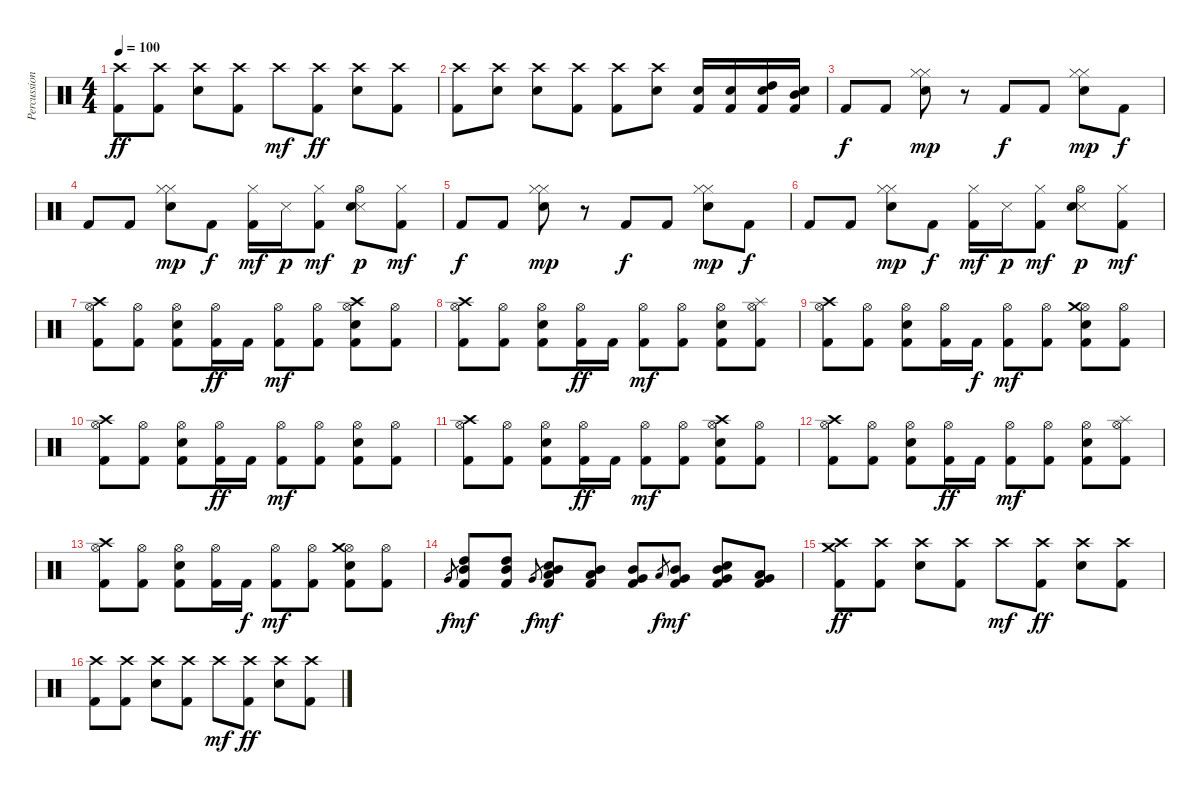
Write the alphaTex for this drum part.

\track ("Percussions" "Percussion") {instrument percussion}
\staff {score}
\articulation defaults
\ts (4 4)
\tempo 100
\clef neutral
\ks c
("Crash high (hit)" "Kick (hit) 2").8{dy ff} ("Crash high (hit)" "Kick (hit) 2").8 ("Crash high (hit)" "Electric Snare (hit)").8 ("Crash high (hit)" "Kick (hit) 2").8 "Crash high (hit)".8{dy mf} ("Crash high (hit)" "Kick (hit) 2").8{dy ff} ("Crash high (hit)" "Electric Snare (hit)").8 ("Crash high (hit)" "Kick (hit) 2").8 |
("Crash high (hit)" "Kick (hit) 2").8 ("Crash high (hit)" "Electric Snare (hit)").8 ("Crash high (hit)" "Electric Snare (hit)").8 ("Crash high (hit)" "Kick (hit) 2").8 ("Crash high (hit)" "Kick (hit) 2").8 ("Crash high (hit)" "Electric Snare (hit)").8 ("Electric Snare (hit)" "Kick (hit) 2").16 ("Electric Snare (hit)" "Kick (hit) 2").16 ("High Tom (hit)" "Electric Snare (hit)" "Kick (hit) 2").16 ("Mid Tom (hit)" "Electric Snare (hit)" "Kick (hit) 2").16 |
"Kick (hit) 2".8{dy f} "Kick (hit) 2".8 ("Hi-Hat (closed)" "Hi-Hat (closed)" "Electric Snare (hit)").8{dy mp} r.8 "Kick (hit) 2".8{dy f} "Kick (hit) 2".8 ("Hi-Hat (closed)" "Hi-Hat (closed)" "Electric Snare (hit)").8{dy mp} "Kick (hit) 2".8{dy f} |
"Kick (hit) 2".8 "Kick (hit) 2".8 ("Hi-Hat (closed)" "Hi-Hat (closed)" "Electric Snare (hit)").8{dy mp} "Kick (hit) 2".8{dy f} ("Hi-Hat (closed)" "Kick (hit) 2").16{dy mf} "Snare (side stick) 3".16{dy p} ("Hi-Hat (closed)" "Kick (hit) 2").8{dy mf} ("Hi-Hat (open)" "Snare (side stick) 3" "Electric Snare (hit)").8{dy p} ("Hi-Hat (closed)" "Kick (hit) 2").8{dy mf} |
"Kick (hit) 2".8{dy f} "Kick (hit) 2".8 ("Hi-Hat (closed)" "Hi-Hat (closed)" "Electric Snare (hit)").8{dy mp} r.8 "Kick (hit) 2".8{dy f} "Kick (hit) 2".8 ("Hi-Hat (closed)" "Hi-Hat (closed)" "Electric Snare (hit)").8{dy mp} "Kick (hit) 2".8{dy f} |
"Kick (hit) 2".8 "Kick (hit) 2".8 ("Hi-Hat (closed)" "Hi-Hat (closed)" "Electric Snare (hit)").8{dy mp} "Kick (hit) 2".8{dy f} ("Hi-Hat (closed)" "Kick (hit) 2").16{dy mf} "Snare (side stick) 3".16{dy p} ("Hi-Hat (closed)" "Kick (hit) 2").8{dy mf} ("Hi-Hat (open)" "Snare (side stick) 3" "Electric Snare (hit)").8{dy p} ("Hi-Hat (closed)" "Kick (hit) 2").8{dy mf} |
("Hi-Hat (open)" "Crash high (hit)" "Kick (hit) 2").8 ("Hi-Hat (open)" "Kick (hit) 2").8 ("Hi-Hat (open)" "Electric Snare (hit)" "Kick (hit) 2").8 ("Hi-Hat (open)" "Kick (hit) 2").16{dy ff} "Kick (hit) 2".16 ("Hi-Hat (open)" "Kick (hit) 2").8{dy mf} ("Hi-Hat (open)" "Kick (hit) 2").8 ("Hi-Hat (open)" "Crash high (hit)" "Electric Snare (hit)" "Kick (hit) 2").8 ("Hi-Hat (open)" "Kick (hit) 2").8 |
("Hi-Hat (open)" "Crash high (hit)" "Kick (hit) 2").8 ("Hi-Hat (open)" "Kick (hit) 2").8 ("Hi-Hat (open)" "Electric Snare (hit)" "Kick (hit) 2").8 ("Hi-Hat (open)" "Kick (hit) 2").16{dy ff} "Kick (hit) 2".16 ("Hi-Hat (open)" "Kick (hit) 2").8{dy mf} ("Hi-Hat (open)" "Kick (hit) 2").8 ("Hi-Hat (open)" "Electric Snare (hit)" "Kick (hit) 2").8 ("Hi-Hat (open)" "Splash (hit)" "Kick (hit) 2").8 |
("Hi-Hat (open)" "Crash high (hit)" "Kick (hit) 2").8 ("Hi-Hat (open)" "Kick (hit) 2").8 ("Hi-Hat (open)" "Electric Snare (hit)" "Kick (hit) 2").8 ("Hi-Hat (open)" "Kick (hit) 2").16 "Kick (hit) 2".16{dy f} ("Hi-Hat (open)" "Kick (hit) 2").8{dy mf} ("Hi-Hat (open)" "Kick (hit) 2").8 ("Hi-Hat (open)" "Crash medium (hit)" "Electric Snare (hit)" "Kick (hit) 2").8 ("Hi-Hat (open)" "Kick (hit) 2").8 |
("Hi-Hat (open)" "Crash high (hit)" "Kick (hit) 2").8 ("Hi-Hat (open)" "Kick (hit) 2").8 ("Hi-Hat (open)" "Electric Snare (hit)" "Kick (hit) 2").8 ("Hi-Hat (open)" "Kick (hit) 2").16{dy ff} "Kick (hit) 2".16 ("Hi-Hat (open)" "Kick (hit) 2").8{dy mf} ("Hi-Hat (open)" "Kick (hit) 2").8 ("Hi-Hat (open)" "Electric Snare (hit)" "Kick (hit) 2").8 ("Hi-Hat (open)" "Kick (hit) 2").8 |
("Hi-Hat (open)" "Crash high (hit)" "Kick (hit) 2").8 ("Hi-Hat (open)" "Kick (hit) 2").8 ("Hi-Hat (open)" "Electric Snare (hit)" "Kick (hit) 2").8 ("Hi-Hat (open)" "Kick (hit) 2").16{dy ff} "Kick (hit) 2".16 ("Hi-Hat (open)" "Kick (hit) 2").8{dy mf} ("Hi-Hat (open)" "Kick (hit) 2").8 ("Hi-Hat (open)" "Crash high (hit)" "Electric Snare (hit)" "Kick (hit) 2").8 ("Hi-Hat (open)" "Kick (hit) 2").8 |
("Hi-Hat (open)" "Crash high (hit)" "Kick (hit) 2").8 ("Hi-Hat (open)" "Kick (hit) 2").8 ("Hi-Hat (open)" "Electric Snare (hit)" "Kick (hit) 2").8 ("Hi-Hat (open)" "Kick (hit) 2").16{dy ff} "Kick (hit) 2".16 ("Hi-Hat (open)" "Kick (hit) 2").8{dy mf} ("Hi-Hat (open)" "Kick (hit) 2").8 ("Hi-Hat (open)" "Electric Snare (hit)" "Kick (hit) 2").8 ("Hi-Hat (open)" "Splash (hit)" "Kick (hit) 2").8 |
("Hi-Hat (open)" "Crash high (hit)" "Kick (hit) 2").8 ("Hi-Hat (open)" "Kick (hit) 2").8 ("Hi-Hat (open)" "Electric Snare (hit)" "Kick (hit) 2").8 ("Hi-Hat (open)" "Kick (hit) 2").16 "Kick (hit) 2".16{dy f} ("Hi-Hat (open)" "Kick (hit) 2").8{dy mf} ("Hi-Hat (open)" "Kick (hit) 2").8 ("Hi-Hat (open)" "Crash medium (hit)" "Electric Snare (hit)" "Kick (hit) 2").8 ("Hi-Hat (open)" "Kick (hit) 2").8 |
"Very Low Tom (hit)".8{gr dy f} ("High Tom (hit)" "Mid Tom (hit)" "Kick (hit) 2").8{dy mf} ("High Tom (hit)" "Mid Tom (hit)" "Kick (hit) 2").8 "Very Low Tom (hit)".8{gr dy f} ("Low Tom (hit)" "Mid Tom (hit)" "Electric Snare (hit)" "Kick (hit) 2").8{dy mf} ("Low Tom (hit)" "Mid Tom (hit)" "Kick (hit) 2").8 ("Mid Tom (hit)" "Very Low Tom (hit)" "Kick (hit) 2").8 "Low Tom (hit)".8{gr dy f} ("Very Low Tom (hit)" "Mid Tom (hit)" "Kick (hit) 2").8{dy mf} ("Mid Tom (hit)" "Very Low Tom (hit)" "Electric Snare (hit)" "Kick (hit) 2").8 ("Very Low Tom (hit)" "Low Floor Tom (hit)" "Kick (hit) 2").8 |
("Crash high (hit)" "Crash medium (hit)" "Kick (hit) 2").8{dy ff} ("Crash high (hit)" "Kick (hit) 2").8 ("Crash high (hit)" "Electric Snare (hit)").8 ("Crash high (hit)" "Kick (hit) 2").8 "Crash high (hit)".8{dy mf} ("Crash high (hit)" "Kick (hit) 2").8{dy ff} ("Crash high (hit)" "Electric Snare (hit)").8 ("Crash high (hit)" "Kick (hit) 2").8 |
("Crash high (hit)" "Kick (hit) 2").8 ("Crash high (hit)" "Kick (hit) 2").8 ("Crash high (hit)" "Electric Snare (hit)").8 ("Crash high (hit)" "Kick (hit) 2").8 "Crash high (hit)".8{dy mf} ("Crash high (hit)" "Kick (hit) 2").8{dy ff} ("Crash high (hit)" "Electric Snare (hit)").8 ("Crash high (hit)" "Kick (hit) 2").8
